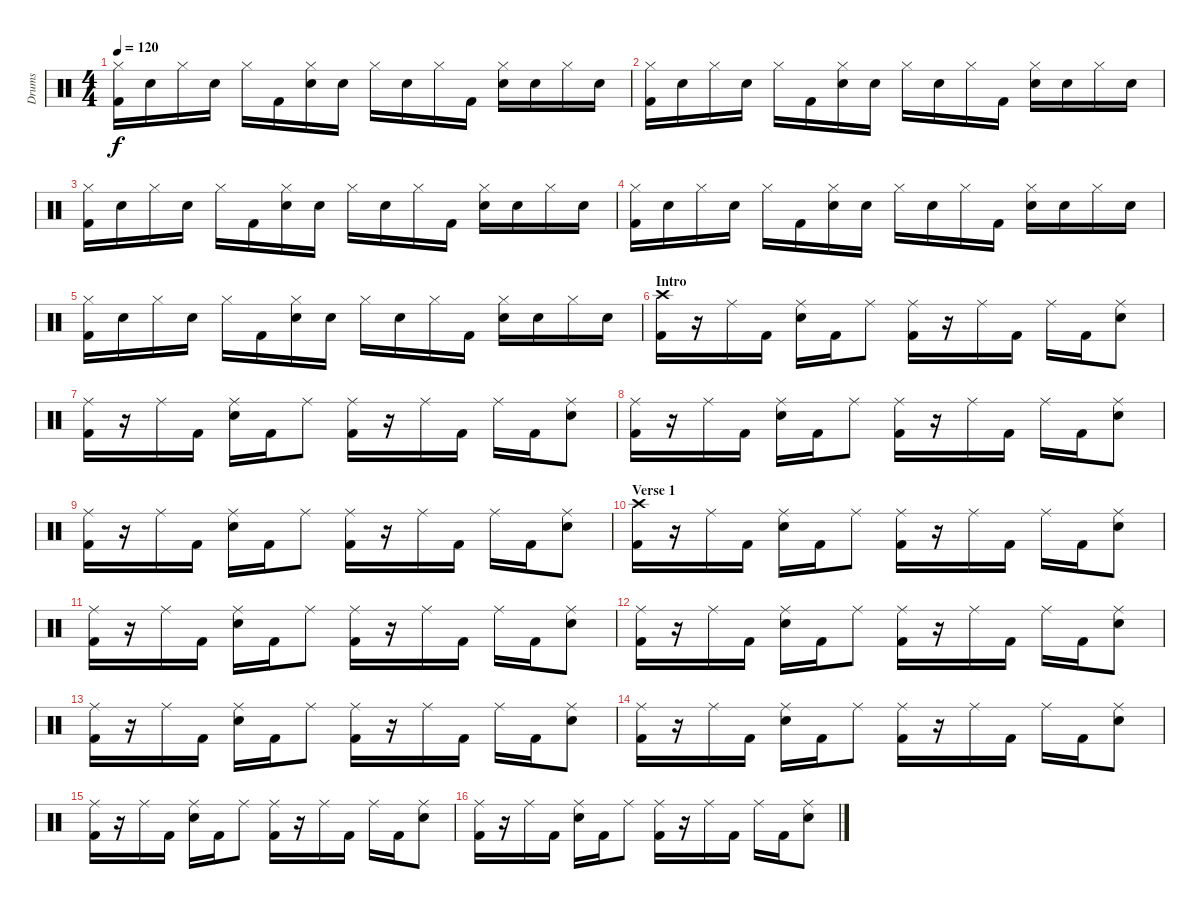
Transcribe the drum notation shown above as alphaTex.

\track ("Drums" "Drums") {instrument percussion}
\staff {score}
\articulation defaults
\ts (4 4)
\tempo 120
\clef neutral
\ks c
("Hi-Hat (closed)" "Kick (hit) 2").16{dy f} "Electric Snare (hit)".16 "Hi-Hat (closed)".16 "Electric Snare (hit)".16 "Hi-Hat (closed)".16 "Kick (hit) 2".16 ("Hi-Hat (closed)" "Electric Snare (hit)").16 "Electric Snare (hit)".16 "Hi-Hat (closed)".16 "Electric Snare (hit)".16 "Hi-Hat (closed)".16 "Kick (hit) 2".16 ("Hi-Hat (closed)" "Electric Snare (hit)").16 "Electric Snare (hit)".16 "Hi-Hat (closed)".16 "Electric Snare (hit)".16 |
("Hi-Hat (closed)" "Kick (hit) 2").16 "Electric Snare (hit)".16 "Hi-Hat (closed)".16 "Electric Snare (hit)".16 "Hi-Hat (closed)".16 "Kick (hit) 2".16 ("Hi-Hat (closed)" "Electric Snare (hit)").16 "Electric Snare (hit)".16 "Hi-Hat (closed)".16 "Electric Snare (hit)".16 "Hi-Hat (closed)".16 "Kick (hit) 2".16 ("Hi-Hat (closed)" "Electric Snare (hit)").16 "Electric Snare (hit)".16 "Hi-Hat (closed)".16 "Electric Snare (hit)".16 |
("Hi-Hat (closed)" "Kick (hit) 2").16 "Electric Snare (hit)".16 "Hi-Hat (closed)".16 "Electric Snare (hit)".16 "Hi-Hat (closed)".16 "Kick (hit) 2".16 ("Hi-Hat (closed)" "Electric Snare (hit)").16 "Electric Snare (hit)".16 "Hi-Hat (closed)".16 "Electric Snare (hit)".16 "Hi-Hat (closed)".16 "Kick (hit) 2".16 ("Hi-Hat (closed)" "Electric Snare (hit)").16 "Electric Snare (hit)".16 "Hi-Hat (closed)".16 "Electric Snare (hit)".16 |
("Hi-Hat (closed)" "Kick (hit) 2").16 "Electric Snare (hit)".16 "Hi-Hat (closed)".16 "Electric Snare (hit)".16 "Hi-Hat (closed)".16 "Kick (hit) 2".16 ("Hi-Hat (closed)" "Electric Snare (hit)").16 "Electric Snare (hit)".16 "Hi-Hat (closed)".16 "Electric Snare (hit)".16 "Hi-Hat (closed)".16 "Kick (hit) 2".16 ("Hi-Hat (closed)" "Electric Snare (hit)").16 "Electric Snare (hit)".16 "Hi-Hat (closed)".16 "Electric Snare (hit)".16 |
("Hi-Hat (closed)" "Kick (hit) 2").16 "Electric Snare (hit)".16 "Hi-Hat (closed)".16 "Electric Snare (hit)".16 "Hi-Hat (closed)".16 "Kick (hit) 2".16 ("Hi-Hat (closed)" "Electric Snare (hit)").16 "Electric Snare (hit)".16 "Hi-Hat (closed)".16 "Electric Snare (hit)".16 "Hi-Hat (closed)".16 "Kick (hit) 2".16 ("Hi-Hat (closed)" "Electric Snare (hit)").16 "Electric Snare (hit)".16 "Hi-Hat (closed)".16 "Electric Snare (hit)".16 |
\section ("" "Intro")
("Crash high (hit)" "Kick (hit) 2").16 r.16 "Ride (middle)".16 "Kick (hit) 2".16 ("Ride (middle)" "Electric Snare (hit)").16 "Kick (hit) 2".16 "Ride (middle)".8 ("Ride (middle)" "Kick (hit) 2").16 r.16 "Ride (middle)".16 "Kick (hit) 2".16 "Ride (middle)".16 "Kick (hit) 2".16 ("Ride (middle)" "Electric Snare (hit)").8 |
("Ride (middle)" "Kick (hit) 2").16 r.16 "Ride (middle)".16 "Kick (hit) 2".16 ("Ride (middle)" "Electric Snare (hit)").16 "Kick (hit) 2".16 "Ride (middle)".8 ("Ride (middle)" "Kick (hit) 2").16 r.16 "Ride (middle)".16 "Kick (hit) 2".16 "Ride (middle)".16 "Kick (hit) 2".16 ("Ride (middle)" "Electric Snare (hit)").8 |
("Ride (middle)" "Kick (hit) 2").16 r.16 "Ride (middle)".16 "Kick (hit) 2".16 ("Ride (middle)" "Electric Snare (hit)").16 "Kick (hit) 2".16 "Ride (middle)".8 ("Ride (middle)" "Kick (hit) 2").16 r.16 "Ride (middle)".16 "Kick (hit) 2".16 "Ride (middle)".16 "Kick (hit) 2".16 ("Ride (middle)" "Electric Snare (hit)").8 |
("Ride (middle)" "Kick (hit) 2").16 r.16 "Ride (middle)".16 "Kick (hit) 2".16 ("Ride (middle)" "Electric Snare (hit)").16 "Kick (hit) 2".16 "Ride (middle)".8 ("Ride (middle)" "Kick (hit) 2").16 r.16 "Ride (middle)".16 "Kick (hit) 2".16 "Ride (middle)".16 "Kick (hit) 2".16 ("Ride (middle)" "Electric Snare (hit)").8 |
\section ("" "Verse 1")
("Crash high (hit)" "Kick (hit) 2").16 r.16 "Ride (middle)".16 "Kick (hit) 2".16 ("Ride (middle)" "Electric Snare (hit)").16 "Kick (hit) 2".16 "Ride (middle)".8 ("Ride (middle)" "Kick (hit) 2").16 r.16 "Ride (middle)".16 "Kick (hit) 2".16 "Ride (middle)".16 "Kick (hit) 2".16 ("Ride (middle)" "Electric Snare (hit)").8 |
("Ride (middle)" "Kick (hit) 2").16 r.16 "Ride (middle)".16 "Kick (hit) 2".16 ("Ride (middle)" "Electric Snare (hit)").16 "Kick (hit) 2".16 "Ride (middle)".8 ("Ride (middle)" "Kick (hit) 2").16 r.16 "Ride (middle)".16 "Kick (hit) 2".16 "Ride (middle)".16 "Kick (hit) 2".16 ("Ride (middle)" "Electric Snare (hit)").8 |
("Ride (middle)" "Kick (hit) 2").16 r.16 "Ride (middle)".16 "Kick (hit) 2".16 ("Ride (middle)" "Electric Snare (hit)").16 "Kick (hit) 2".16 "Ride (middle)".8 ("Ride (middle)" "Kick (hit) 2").16 r.16 "Ride (middle)".16 "Kick (hit) 2".16 "Ride (middle)".16 "Kick (hit) 2".16 ("Ride (middle)" "Electric Snare (hit)").8 |
("Ride (middle)" "Kick (hit) 2").16 r.16 "Ride (middle)".16 "Kick (hit) 2".16 ("Ride (middle)" "Electric Snare (hit)").16 "Kick (hit) 2".16 "Ride (middle)".8 ("Ride (middle)" "Kick (hit) 2").16 r.16 "Ride (middle)".16 "Kick (hit) 2".16 "Ride (middle)".16 "Kick (hit) 2".16 ("Ride (middle)" "Electric Snare (hit)").8 |
("Ride (middle)" "Kick (hit) 2").16 r.16 "Ride (middle)".16 "Kick (hit) 2".16 ("Ride (middle)" "Electric Snare (hit)").16 "Kick (hit) 2".16 "Ride (middle)".8 ("Ride (middle)" "Kick (hit) 2").16 r.16 "Ride (middle)".16 "Kick (hit) 2".16 "Ride (middle)".16 "Kick (hit) 2".16 ("Ride (middle)" "Electric Snare (hit)").8 |
("Ride (middle)" "Kick (hit) 2").16 r.16 "Ride (middle)".16 "Kick (hit) 2".16 ("Ride (middle)" "Electric Snare (hit)").16 "Kick (hit) 2".16 "Ride (middle)".8 ("Ride (middle)" "Kick (hit) 2").16 r.16 "Ride (middle)".16 "Kick (hit) 2".16 "Ride (middle)".16 "Kick (hit) 2".16 ("Ride (middle)" "Electric Snare (hit)").8 |
("Ride (middle)" "Kick (hit) 2").16 r.16 "Ride (middle)".16 "Kick (hit) 2".16 ("Ride (middle)" "Electric Snare (hit)").16 "Kick (hit) 2".16 "Ride (middle)".8 ("Ride (middle)" "Kick (hit) 2").16 r.16 "Ride (middle)".16 "Kick (hit) 2".16 "Ride (middle)".16 "Kick (hit) 2".16 ("Ride (middle)" "Electric Snare (hit)").8
